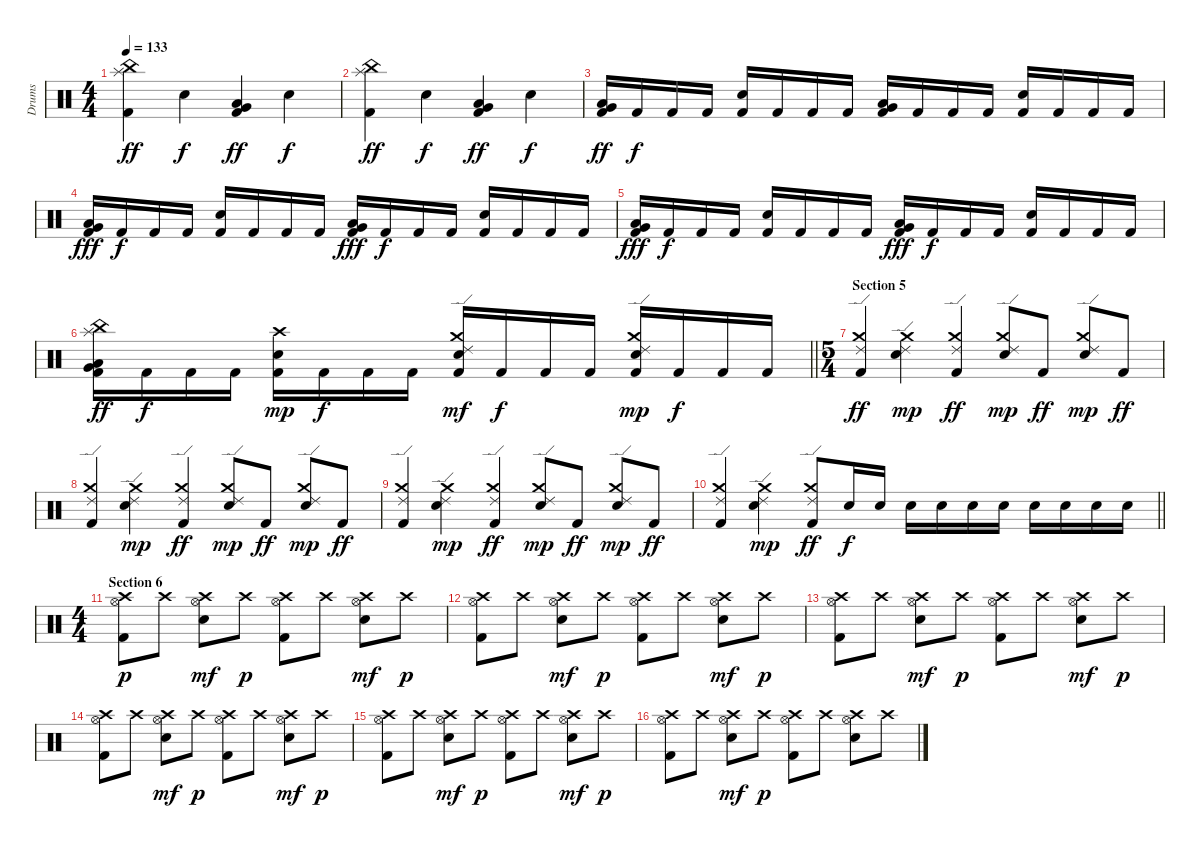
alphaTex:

\track ("Drums" "Drums") {instrument percussion}
\staff {score}
\articulation defaults
\ts (4 4)
\tempo 133
\clef neutral
\ks c
("Splash (hit)" "China (hit)" "Kick (hit) 2").4{dy ff} "Electric Snare (hit)".4{dy f} ("Very Low Tom (hit)" "Low Floor Tom (hit)" "Kick (hit) 2").4{dy ff} "Electric Snare (hit)".4{dy f} |
("Splash (hit)" "China (hit)" "Kick (hit) 2").4{dy ff} "Electric Snare (hit)".4{dy f} ("Very Low Tom (hit)" "Low Floor Tom (hit)" "Kick (hit) 2").4{dy ff} "Electric Snare (hit)".4{dy f} |
("Very Low Tom (hit)" "Low Floor Tom (hit)" "Kick (hit) 2").16{dy ff} "Kick (hit) 2".16{dy f} "Kick (hit) 2".16 "Kick (hit) 2".16 ("Electric Snare (hit)" "Kick (hit) 2").16 "Kick (hit) 2".16 "Kick (hit) 2".16 "Kick (hit) 2".16 ("Very Low Tom (hit)" "Low Floor Tom (hit)" "Kick (hit) 2").16 "Kick (hit) 2".16 "Kick (hit) 2".16 "Kick (hit) 2".16 ("Electric Snare (hit)" "Kick (hit) 2").16 "Kick (hit) 2".16 "Kick (hit) 2".16 "Kick (hit) 2".16 |
("Very Low Tom (hit)" "Low Floor Tom (hit)" "Kick (hit) 2").16{dy fff} "Kick (hit) 2".16{dy f} "Kick (hit) 2".16 "Kick (hit) 2".16 ("Electric Snare (hit)" "Kick (hit) 2").16 "Kick (hit) 2".16 "Kick (hit) 2".16 "Kick (hit) 2".16 ("Very Low Tom (hit)" "Low Floor Tom (hit)" "Kick (hit) 2").16{dy fff} "Kick (hit) 2".16{dy f} "Kick (hit) 2".16 "Kick (hit) 2".16 ("Electric Snare (hit)" "Kick (hit) 2").16 "Kick (hit) 2".16 "Kick (hit) 2".16 "Kick (hit) 2".16 |
("Very Low Tom (hit)" "Low Floor Tom (hit)" "Kick (hit) 2").16{dy fff} "Kick (hit) 2".16{dy f} "Kick (hit) 2".16 "Kick (hit) 2".16 ("Electric Snare (hit)" "Kick (hit) 2").16 "Kick (hit) 2".16 "Kick (hit) 2".16 "Kick (hit) 2".16 ("Very Low Tom (hit)" "Low Floor Tom (hit)" "Kick (hit) 2").16{dy fff} "Kick (hit) 2".16{dy f} "Kick (hit) 2".16 "Kick (hit) 2".16 ("Electric Snare (hit)" "Kick (hit) 2").16 "Kick (hit) 2".16 "Kick (hit) 2".16 "Kick (hit) 2".16 |
\barLineRight lightlight
("Splash (hit)" "China (hit)" "Very Low Tom (hit)" "Low Floor Tom (hit)" "Kick (hit) 2").16{dy ff} "Kick (hit) 2".16{dy f} "Kick (hit) 2".16 "Kick (hit) 2".16 ("Crash high (hit)" "Electric Snare (hit)" "Kick (hit) 2").16{dy mp} "Kick (hit) 2".16{dy f} "Kick (hit) 2".16 "Kick (hit) 2".16 ("Crash medium (hit)" "Ride (edge) 2" "Electric Snare (hit)" "Kick (hit) 2").16{dy mf} "Kick (hit) 2".16{dy f} "Kick (hit) 2".16 "Kick (hit) 2".16 ("Crash medium (hit)" "Ride (edge) 2" "Electric Snare (hit)" "Kick (hit) 2").16{dy mp} "Kick (hit) 2".16{dy f} "Kick (hit) 2".16 "Kick (hit) 2".16 |
\ts (5 4)
\section ("" "Section 5")
("Crash medium (hit)" "Ride (edge) 2" "Kick (hit) 2").4{dy ff} ("Crash medium (hit)" "Ride (edge) 2" "Electric Snare (hit)").4{dy mp} ("Crash medium (hit)" "Ride (edge) 2" "Kick (hit) 2").4{dy ff} ("Crash medium (hit)" "Ride (edge) 2" "Electric Snare (hit)").8{dy mp} "Kick (hit) 2".8{dy ff} ("Crash medium (hit)" "Ride (edge) 2" "Electric Snare (hit)").8{dy mp} "Kick (hit) 2".8{dy ff} |
("Crash medium (hit)" "Ride (edge) 2" "Kick (hit) 2").4 ("Crash medium (hit)" "Ride (edge) 2" "Electric Snare (hit)").4{dy mp} ("Crash medium (hit)" "Ride (edge) 2" "Kick (hit) 2").4{dy ff} ("Crash medium (hit)" "Ride (edge) 2" "Electric Snare (hit)").8{dy mp} "Kick (hit) 2".8{dy ff} ("Crash medium (hit)" "Ride (edge) 2" "Electric Snare (hit)").8{dy mp} "Kick (hit) 2".8{dy ff} |
("Crash medium (hit)" "Ride (edge) 2" "Kick (hit) 2").4 ("Crash medium (hit)" "Ride (edge) 2" "Electric Snare (hit)").4{dy mp} ("Crash medium (hit)" "Ride (edge) 2" "Kick (hit) 2").4{dy ff} ("Crash medium (hit)" "Ride (edge) 2" "Electric Snare (hit)").8{dy mp} "Kick (hit) 2".8{dy ff} ("Crash medium (hit)" "Ride (edge) 2" "Electric Snare (hit)").8{dy mp} "Kick (hit) 2".8{dy ff} |
\barLineRight lightlight
("Crash medium (hit)" "Ride (edge) 2" "Kick (hit) 2").4 ("Crash medium (hit)" "Ride (edge) 2" "Electric Snare (hit)").4{dy mp} ("Crash medium (hit)" "Ride (edge) 2" "Kick (hit) 2").8{dy ff} "Electric Snare (hit)".16{dy f} "Electric Snare (hit)".16 "Electric Snare (hit)".16 "Electric Snare (hit)".16 "Electric Snare (hit)".16 "Electric Snare (hit)".16 "Electric Snare (hit)".16 "Electric Snare (hit)".16 "Electric Snare (hit)".16 "Electric Snare (hit)".16 |
\ts (4 4)
\section ("" "Section 6")
("Crash high (hit)" "Hi-Hat (open)" "Kick (hit) 2").8{dy p} "Crash high (hit)".8 ("Crash high (hit)" "Hi-Hat (open)" "Electric Snare (hit)").8{dy mf} "Crash high (hit)".8{dy p} ("Crash high (hit)" "Hi-Hat (open)" "Kick (hit) 2").8 "Crash high (hit)".8 ("Crash high (hit)" "Hi-Hat (open)" "Electric Snare (hit)").8{dy mf} "Crash high (hit)".8{dy p} |
("Crash high (hit)" "Hi-Hat (open)" "Kick (hit) 2").8 "Crash high (hit)".8 ("Crash high (hit)" "Hi-Hat (open)" "Electric Snare (hit)").8{dy mf} "Crash high (hit)".8{dy p} ("Crash high (hit)" "Hi-Hat (open)" "Kick (hit) 2").8 "Crash high (hit)".8 ("Crash high (hit)" "Hi-Hat (open)" "Electric Snare (hit)").8{dy mf} "Crash high (hit)".8{dy p} |
("Crash high (hit)" "Hi-Hat (open)" "Kick (hit) 2").8 "Crash high (hit)".8 ("Crash high (hit)" "Hi-Hat (open)" "Electric Snare (hit)").8{dy mf} "Crash high (hit)".8{dy p} ("Crash high (hit)" "Hi-Hat (open)" "Kick (hit) 2").8 "Crash high (hit)".8 ("Crash high (hit)" "Hi-Hat (open)" "Electric Snare (hit)").8{dy mf} "Crash high (hit)".8{dy p} |
("Crash high (hit)" "Hi-Hat (open)" "Kick (hit) 2").8 "Crash high (hit)".8 ("Crash high (hit)" "Hi-Hat (open)" "Electric Snare (hit)").8{dy mf} "Crash high (hit)".8{dy p} ("Crash high (hit)" "Hi-Hat (open)" "Kick (hit) 2").8 "Crash high (hit)".8 ("Crash high (hit)" "Hi-Hat (open)" "Electric Snare (hit)").8{dy mf} "Crash high (hit)".8{dy p} |
("Crash high (hit)" "Hi-Hat (open)" "Kick (hit) 2").8 "Crash high (hit)".8 ("Crash high (hit)" "Hi-Hat (open)" "Electric Snare (hit)").8{dy mf} "Crash high (hit)".8{dy p} ("Crash high (hit)" "Hi-Hat (open)" "Kick (hit) 2").8 "Crash high (hit)".8 ("Crash high (hit)" "Hi-Hat (open)" "Electric Snare (hit)").8{dy mf} "Crash high (hit)".8{dy p} |
("Crash high (hit)" "Hi-Hat (open)" "Kick (hit) 2").8 "Crash high (hit)".8 ("Crash high (hit)" "Hi-Hat (open)" "Electric Snare (hit)").8{dy mf} "Crash high (hit)".8{dy p} ("Crash high (hit)" "Hi-Hat (open)" "Kick (hit) 2").8 "Crash high (hit)".8 ("Crash high (hit)" "Hi-Hat (open)" "Electric Snare (hit)").8 "Crash high (hit)".8
